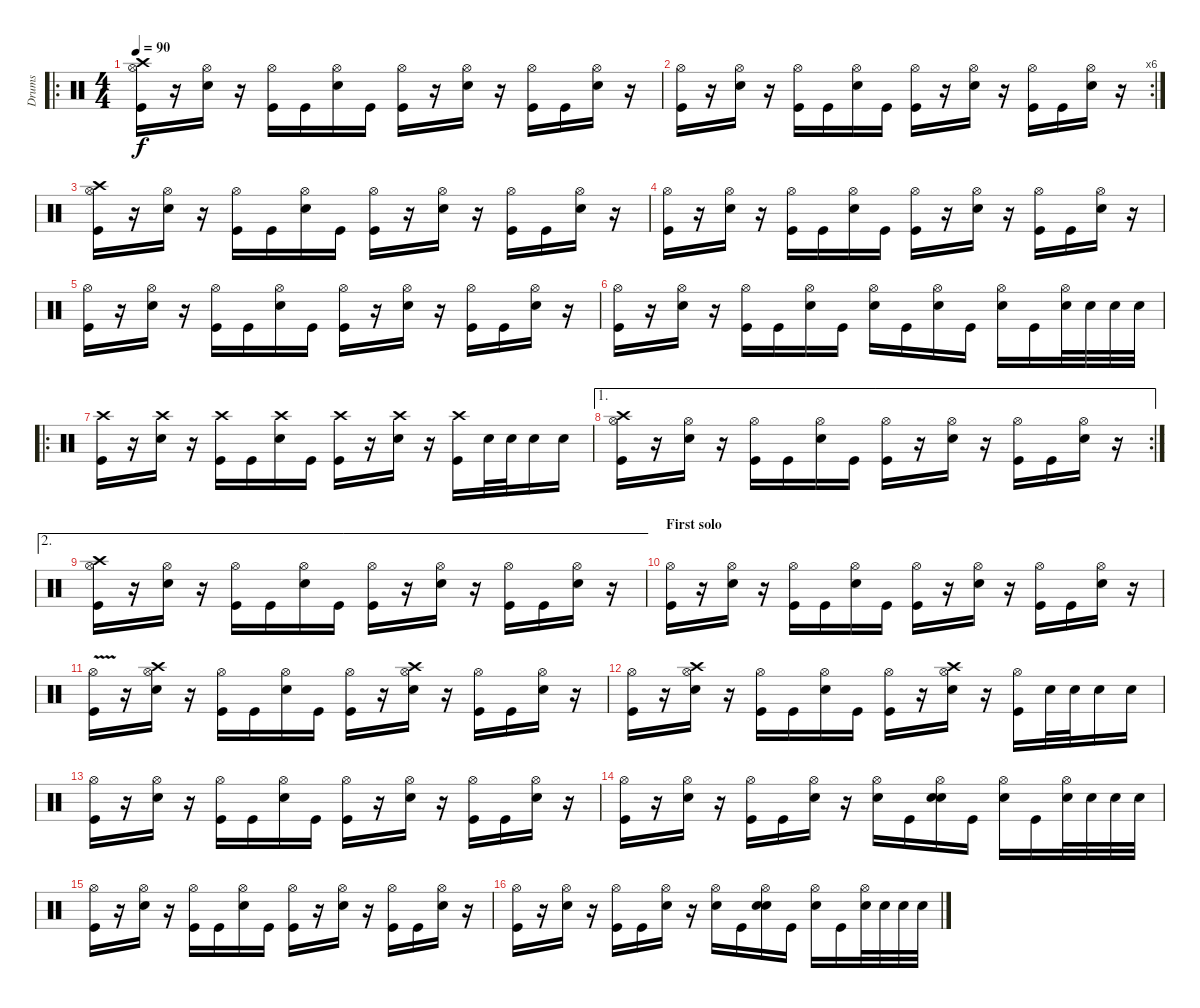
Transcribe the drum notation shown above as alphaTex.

\track ("Drums" "Drums") {instrument percussion}
\staff {score}
\articulation defaults
\ro
\ts (4 4)
\tempo 90
\clef neutral
\ks c
("Crash high (hit)" "Hi-Hat (open)" "Kick (hit)").16{dy f} r.16 ("Hi-Hat (open)" "Electric Snare (hit)").16 r.16 ("Hi-Hat (open)" "Kick (hit)").16 "Kick (hit)".16 ("Hi-Hat (open)" "Electric Snare (hit)").16 "Kick (hit)".16 ("Hi-Hat (open)" "Kick (hit)").16 r.16 ("Hi-Hat (open)" "Electric Snare (hit)").16 r.16 ("Hi-Hat (open)" "Kick (hit)").16 "Kick (hit)".16 ("Hi-Hat (open)" "Electric Snare (hit)").16 r.16 |
\rc 6
("Hi-Hat (open)" "Kick (hit)").16 r.16 ("Hi-Hat (open)" "Electric Snare (hit)").16 r.16 ("Hi-Hat (open)" "Kick (hit)").16 "Kick (hit)".16 ("Hi-Hat (open)" "Electric Snare (hit)").16 "Kick (hit)".16 ("Hi-Hat (open)" "Kick (hit)").16 r.16 ("Hi-Hat (open)" "Electric Snare (hit)").16 r.16 ("Hi-Hat (open)" "Kick (hit)").16 "Kick (hit)".16 ("Hi-Hat (open)" "Electric Snare (hit)").16 r.16 |
("Crash high (hit)" "Hi-Hat (open)" "Kick (hit)").16 r.16 ("Hi-Hat (open)" "Electric Snare (hit)").16 r.16 ("Hi-Hat (open)" "Kick (hit)").16 "Kick (hit)".16 ("Hi-Hat (open)" "Electric Snare (hit)").16 "Kick (hit)".16 ("Hi-Hat (open)" "Kick (hit)").16 r.16 ("Hi-Hat (open)" "Electric Snare (hit)").16 r.16 ("Hi-Hat (open)" "Kick (hit)").16 "Kick (hit)".16 ("Hi-Hat (open)" "Electric Snare (hit)").16 r.16 |
("Hi-Hat (open)" "Kick (hit)").16 r.16 ("Hi-Hat (open)" "Electric Snare (hit)").16 r.16 ("Hi-Hat (open)" "Kick (hit)").16 "Kick (hit)".16 ("Hi-Hat (open)" "Electric Snare (hit)").16 "Kick (hit)".16 ("Hi-Hat (open)" "Kick (hit)").16 r.16 ("Hi-Hat (open)" "Electric Snare (hit)").16 r.16 ("Hi-Hat (open)" "Kick (hit)").16 "Kick (hit)".16 ("Hi-Hat (open)" "Electric Snare (hit)").16 r.16 |
("Hi-Hat (open)" "Kick (hit)").16 r.16 ("Hi-Hat (open)" "Electric Snare (hit)").16 r.16 ("Hi-Hat (open)" "Kick (hit)").16 "Kick (hit)".16 ("Hi-Hat (open)" "Electric Snare (hit)").16 "Kick (hit)".16 ("Hi-Hat (open)" "Kick (hit)").16 r.16 ("Hi-Hat (open)" "Electric Snare (hit)").16 r.16 ("Hi-Hat (open)" "Kick (hit)").16 "Kick (hit)".16 ("Hi-Hat (open)" "Electric Snare (hit)").16 r.16 |
("Hi-Hat (open)" "Kick (hit)").16 r.16 ("Hi-Hat (open)" "Electric Snare (hit)").16 r.16 ("Hi-Hat (open)" "Kick (hit)").16 "Kick (hit)".16 ("Hi-Hat (open)" "Electric Snare (hit)").16 "Kick (hit)".16 ("Hi-Hat (open)" "Electric Snare (hit)").16 "Kick (hit)".16 ("Hi-Hat (open)" "Electric Snare (hit)").16 "Kick (hit)".16 ("Hi-Hat (open)" "Electric Snare (hit)").16 "Kick (hit)".16 ("Hi-Hat (open)" "Electric Snare (hit)").32 "Electric Snare (hit)".32 "Electric Snare (hit)".32 "Electric Snare (hit)".32 |
\ro
("Crash high (hit)" "Kick (hit)").16 r.16 ("Crash high (hit)" "Electric Snare (hit)").16 r.16 ("Crash high (hit)" "Kick (hit)").16 "Kick (hit)".16 ("Crash high (hit)" "Electric Snare (hit)").16 "Kick (hit)".16 ("Crash high (hit)" "Kick (hit)").16 r.16 ("Crash high (hit)" "Electric Snare (hit)").16 r.16 ("Crash high (hit)" "Kick (hit)").16 "Electric Snare (hit)".32 "Electric Snare (hit)".32 "Electric Snare (hit)".16 "Electric Snare (hit)".16 |
\ae 1
\rc 2
("Crash high (hit)" "Hi-Hat (open)" "Kick (hit)").16 r.16 ("Hi-Hat (open)" "Electric Snare (hit)").16 r.16 ("Hi-Hat (open)" "Kick (hit)").16 "Kick (hit)".16 ("Hi-Hat (open)" "Electric Snare (hit)").16 "Kick (hit)".16 ("Hi-Hat (open)" "Kick (hit)").16 r.16 ("Hi-Hat (open)" "Electric Snare (hit)").16 r.16 ("Hi-Hat (open)" "Kick (hit)").16 "Kick (hit)".16 ("Hi-Hat (open)" "Electric Snare (hit)").16 r.16 |
\ae 2
("Crash high (hit)" "Hi-Hat (open)" "Kick (hit)").16 r.16 ("Hi-Hat (open)" "Electric Snare (hit)").16 r.16 ("Hi-Hat (open)" "Kick (hit)").16 "Kick (hit)".16 ("Hi-Hat (open)" "Electric Snare (hit)").16 "Kick (hit)".16 ("Hi-Hat (open)" "Kick (hit)").16 r.16 ("Hi-Hat (open)" "Electric Snare (hit)").16 r.16 ("Hi-Hat (open)" "Kick (hit)").16 "Kick (hit)".16 ("Hi-Hat (open)" "Electric Snare (hit)").16 r.16 |
\section ("" "First solo")
("Hi-Hat (open)" "Kick (hit)").16 r.16 ("Hi-Hat (open)" "Electric Snare (hit)").16 r.16 ("Hi-Hat (open)" "Kick (hit)").16 "Kick (hit)".16 ("Hi-Hat (open)" "Electric Snare (hit)").16 "Kick (hit)".16 ("Hi-Hat (open)" "Kick (hit)").16 r.16 ("Hi-Hat (open)" "Electric Snare (hit)").16 r.16 ("Hi-Hat (open)" "Kick (hit)").16 "Kick (hit)".16 ("Hi-Hat (open)" "Electric Snare (hit)").16 r.16 |
("Hi-Hat (open)"{v} "Kick (hit)").16 r.16 ("Crash high (hit)" "Hi-Hat (open)" "Electric Snare (hit)").16 r.16 ("Hi-Hat (open)" "Kick (hit)").16 "Kick (hit)".16 ("Hi-Hat (open)" "Electric Snare (hit)").16 "Kick (hit)".16 ("Hi-Hat (open)" "Kick (hit)").16 r.16 ("Crash high (hit)" "Hi-Hat (open)" "Electric Snare (hit)").16 r.16 ("Hi-Hat (open)" "Kick (hit)").16 "Kick (hit)".16 ("Hi-Hat (open)" "Electric Snare (hit)").16 r.16 |
("Hi-Hat (open)" "Kick (hit)").16 r.16 ("Crash high (hit)" "Hi-Hat (open)" "Electric Snare (hit)").16 r.16 ("Hi-Hat (open)" "Kick (hit)").16 "Kick (hit)".16 ("Hi-Hat (open)" "Electric Snare (hit)").16 "Kick (hit)".16 ("Hi-Hat (open)" "Kick (hit)").16 r.16 ("Crash high (hit)" "Hi-Hat (open)" "Electric Snare (hit)").16 r.16 ("Hi-Hat (open)" "Kick (hit)").16 "Electric Snare (hit)".32 "Electric Snare (hit)".32 "Electric Snare (hit)".16 "Electric Snare (hit)".16 |
("Hi-Hat (open)" "Kick (hit)").16 r.16 ("Hi-Hat (open)" "Electric Snare (hit)").16 r.16 ("Hi-Hat (open)" "Kick (hit)").16 "Kick (hit)".16 ("Hi-Hat (open)" "Electric Snare (hit)").16 "Kick (hit)".16 ("Hi-Hat (open)" "Kick (hit)").16 r.16 ("Hi-Hat (open)" "Electric Snare (hit)").16 r.16 ("Hi-Hat (open)" "Kick (hit)").16 "Kick (hit)".16 ("Hi-Hat (open)" "Electric Snare (hit)").16 r.16 |
("Hi-Hat (open)" "Kick (hit)").16 r.16 ("Hi-Hat (open)" "Electric Snare (hit)").16 r.16 ("Hi-Hat (open)" "Kick (hit)").16 "Kick (hit)".16 ("Hi-Hat (open)" "Electric Snare (hit)").16 r.16 ("Hi-Hat (open)" "Electric Snare (hit)").16 "Kick (hit)".16 ("Hi-Hat (open)" "Electric Snare (hit)" "Electric Snare (hit)").16 "Kick (hit)".16 ("Hi-Hat (open)" "Electric Snare (hit)").16 "Kick (hit)".16 ("Hi-Hat (open)" "Electric Snare (hit)").32 "Electric Snare (hit)".32 "Electric Snare (hit)".32 "Electric Snare (hit)".32 |
("Hi-Hat (open)" "Kick (hit)").16 r.16 ("Hi-Hat (open)" "Electric Snare (hit)").16 r.16 ("Hi-Hat (open)" "Kick (hit)").16 "Kick (hit)".16 ("Hi-Hat (open)" "Electric Snare (hit)").16 "Kick (hit)".16 ("Hi-Hat (open)" "Kick (hit)").16 r.16 ("Hi-Hat (open)" "Electric Snare (hit)").16 r.16 ("Hi-Hat (open)" "Kick (hit)").16 "Kick (hit)".16 ("Hi-Hat (open)" "Electric Snare (hit)").16 r.16 |
("Hi-Hat (open)" "Kick (hit)").16 r.16 ("Hi-Hat (open)" "Electric Snare (hit)").16 r.16 ("Hi-Hat (open)" "Kick (hit)").16 "Kick (hit)".16 ("Hi-Hat (open)" "Electric Snare (hit)").16 r.16 ("Hi-Hat (open)" "Electric Snare (hit)").16 "Kick (hit)".16 ("Hi-Hat (open)" "Electric Snare (hit)" "Electric Snare (hit)").16 "Kick (hit)".16 ("Hi-Hat (open)" "Electric Snare (hit)").16 "Kick (hit)".16 ("Hi-Hat (open)" "Electric Snare (hit)").32 "Electric Snare (hit)".32 "Electric Snare (hit)".32 "Electric Snare (hit)".32
